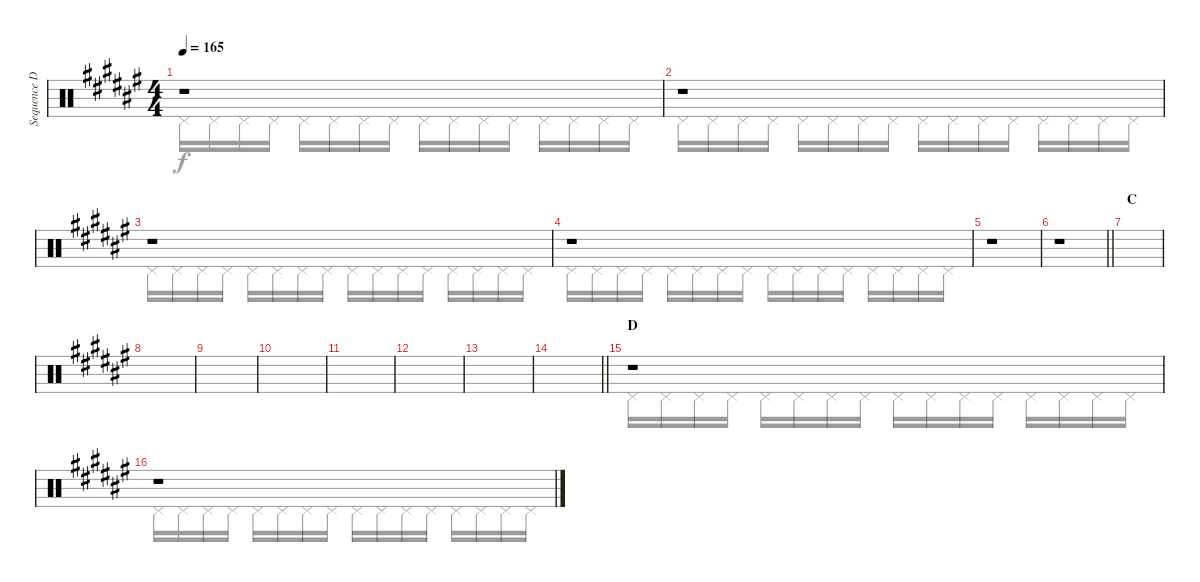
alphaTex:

\track ("Sequence Drums" "Sequence D") {instrument percussion}
\staff {score}
\articulation defaults
\voice
\ts (4 4)
\tempo 165
\clef neutral
\ks f#
r.1{dy p} |
r.1 |
r.1 |
r.1 |
r.1 |
\barLineRight lightlight
r.1 |
\section ("" "C")
|
|
|
|
|
|
|
\barLineRight lightlight
|
\section ("" "D")
r.1 |
r.1
\voice
\clef neutral
\ottava regular
\simile none
\ks f# "Pedal Hi-Hat (hit)".16{dy f} "Pedal Hi-Hat (hit)".16 "Pedal Hi-Hat (hit)".16 "Pedal Hi-Hat (hit)".16 "Pedal Hi-Hat (hit)".16 "Pedal Hi-Hat (hit)".16 "Pedal Hi-Hat (hit)".16 "Pedal Hi-Hat (hit)".16 "Pedal Hi-Hat (hit)".16 "Pedal Hi-Hat (hit)".16 "Pedal Hi-Hat (hit)".16 "Pedal Hi-Hat (hit)".16 "Pedal Hi-Hat (hit)".16 "Pedal Hi-Hat (hit)".16 "Pedal Hi-Hat (hit)".16 "Pedal Hi-Hat (hit)".16
|
"Pedal Hi-Hat (hit)".16 "Pedal Hi-Hat (hit)".16 "Pedal Hi-Hat (hit)".16 "Pedal Hi-Hat (hit)".16 "Pedal Hi-Hat (hit)".16 "Pedal Hi-Hat (hit)".16 "Pedal Hi-Hat (hit)".16 "Pedal Hi-Hat (hit)".16 "Pedal Hi-Hat (hit)".16 "Pedal Hi-Hat (hit)".16 "Pedal Hi-Hat (hit)".16 "Pedal Hi-Hat (hit)".16 "Pedal Hi-Hat (hit)".16 "Pedal Hi-Hat (hit)".16 "Pedal Hi-Hat (hit)".16 "Pedal Hi-Hat (hit)".16 |
"Pedal Hi-Hat (hit)".16 "Pedal Hi-Hat (hit)".16 "Pedal Hi-Hat (hit)".16 "Pedal Hi-Hat (hit)".16 "Pedal Hi-Hat (hit)".16 "Pedal Hi-Hat (hit)".16 "Pedal Hi-Hat (hit)".16 "Pedal Hi-Hat (hit)".16 "Pedal Hi-Hat (hit)".16 "Pedal Hi-Hat (hit)".16 "Pedal Hi-Hat (hit)".16 "Pedal Hi-Hat (hit)".16 "Pedal Hi-Hat (hit)".16 "Pedal Hi-Hat (hit)".16 "Pedal Hi-Hat (hit)".16 "Pedal Hi-Hat (hit)".16 |
"Pedal Hi-Hat (hit)".16 "Pedal Hi-Hat (hit)".16 "Pedal Hi-Hat (hit)".16 "Pedal Hi-Hat (hit)".16 "Pedal Hi-Hat (hit)".16 "Pedal Hi-Hat (hit)".16 "Pedal Hi-Hat (hit)".16 "Pedal Hi-Hat (hit)".16 "Pedal Hi-Hat (hit)".16 "Pedal Hi-Hat (hit)".16 "Pedal Hi-Hat (hit)".16 "Pedal Hi-Hat (hit)".16 "Pedal Hi-Hat (hit)".16 "Pedal Hi-Hat (hit)".16 "Pedal Hi-Hat (hit)".16 "Pedal Hi-Hat (hit)".16 |
|
\barLineRight lightlight
|
|
|
|
|
|
|
|
\barLineRight lightlight
|
"Pedal Hi-Hat (hit)".16 "Pedal Hi-Hat (hit)".16 "Pedal Hi-Hat (hit)".16 "Pedal Hi-Hat (hit)".16 "Pedal Hi-Hat (hit)".16 "Pedal Hi-Hat (hit)".16 "Pedal Hi-Hat (hit)".16 "Pedal Hi-Hat (hit)".16 "Pedal Hi-Hat (hit)".16 "Pedal Hi-Hat (hit)".16 "Pedal Hi-Hat (hit)".16 "Pedal Hi-Hat (hit)".16 "Pedal Hi-Hat (hit)".16 "Pedal Hi-Hat (hit)".16 "Pedal Hi-Hat (hit)".16 "Pedal Hi-Hat (hit)".16 |
"Pedal Hi-Hat (hit)".16 "Pedal Hi-Hat (hit)".16 "Pedal Hi-Hat (hit)".16 "Pedal Hi-Hat (hit)".16 "Pedal Hi-Hat (hit)".16 "Pedal Hi-Hat (hit)".16 "Pedal Hi-Hat (hit)".16 "Pedal Hi-Hat (hit)".16 "Pedal Hi-Hat (hit)".16 "Pedal Hi-Hat (hit)".16 "Pedal Hi-Hat (hit)".16 "Pedal Hi-Hat (hit)".16 "Pedal Hi-Hat (hit)".16 "Pedal Hi-Hat (hit)".16 "Pedal Hi-Hat (hit)".16 "Pedal Hi-Hat (hit)".16
